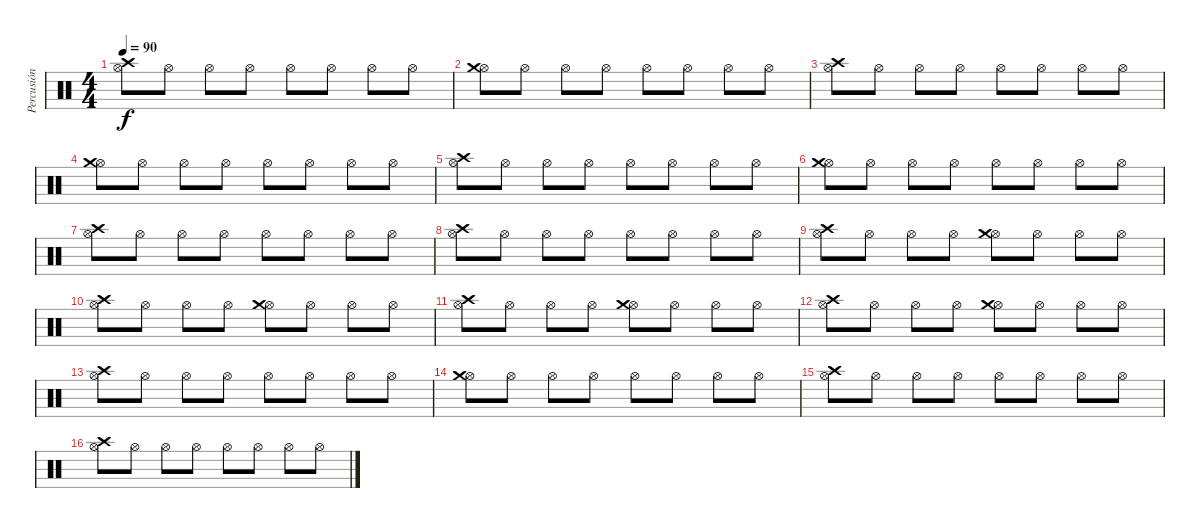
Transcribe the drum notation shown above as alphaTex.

\track ("Percusión" "Percusión") {instrument percussion}
\staff {score}
\articulation defaults
\ts (4 4)
\tempo 90
\clef neutral
\ks c
("Hi-Hat (open)" "Crash high (hit)").8{dy f} "Hi-Hat (open)".8 "Hi-Hat (open)".8 "Hi-Hat (open)".8 "Hi-Hat (open)".8 "Hi-Hat (open)".8 "Hi-Hat (open)".8 "Hi-Hat (open)".8 |
("Hi-Hat (open)" "Crash medium (hit)").8 "Hi-Hat (open)".8 "Hi-Hat (open)".8 "Hi-Hat (open)".8 "Hi-Hat (open)".8 "Hi-Hat (open)".8 "Hi-Hat (open)".8 "Hi-Hat (open)".8 |
("Hi-Hat (open)" "Crash high (hit)").8 "Hi-Hat (open)".8 "Hi-Hat (open)".8 "Hi-Hat (open)".8 "Hi-Hat (open)".8 "Hi-Hat (open)".8 "Hi-Hat (open)".8 "Hi-Hat (open)".8 |
("Hi-Hat (open)" "Crash medium (hit)").8 "Hi-Hat (open)".8 "Hi-Hat (open)".8 "Hi-Hat (open)".8 "Hi-Hat (open)".8 "Hi-Hat (open)".8 "Hi-Hat (open)".8 "Hi-Hat (open)".8 |
("Hi-Hat (open)" "Crash high (hit)").8 "Hi-Hat (open)".8 "Hi-Hat (open)".8 "Hi-Hat (open)".8 "Hi-Hat (open)".8 "Hi-Hat (open)".8 "Hi-Hat (open)".8 "Hi-Hat (open)".8 |
("Hi-Hat (open)" "Crash medium (hit)").8 "Hi-Hat (open)".8 "Hi-Hat (open)".8 "Hi-Hat (open)".8 "Hi-Hat (open)".8 "Hi-Hat (open)".8 "Hi-Hat (open)".8 "Hi-Hat (open)".8 |
("Hi-Hat (open)" "Crash high (hit)").8 "Hi-Hat (open)".8 "Hi-Hat (open)".8 "Hi-Hat (open)".8 "Hi-Hat (open)".8 "Hi-Hat (open)".8 "Hi-Hat (open)".8 "Hi-Hat (open)".8 |
("Hi-Hat (open)" "Crash high (hit)").8 "Hi-Hat (open)".8 "Hi-Hat (open)".8 "Hi-Hat (open)".8 "Hi-Hat (open)".8 "Hi-Hat (open)".8 "Hi-Hat (open)".8 "Hi-Hat (open)".8 |
("Hi-Hat (open)" "Crash high (hit)").8 "Hi-Hat (open)".8 "Hi-Hat (open)".8 "Hi-Hat (open)".8 ("Hi-Hat (open)" "Crash medium (hit)").8 "Hi-Hat (open)".8 "Hi-Hat (open)".8 "Hi-Hat (open)".8 |
("Hi-Hat (open)" "Crash high (hit)").8 "Hi-Hat (open)".8 "Hi-Hat (open)".8 "Hi-Hat (open)".8 ("Hi-Hat (open)" "Crash medium (hit)").8 "Hi-Hat (open)".8 "Hi-Hat (open)".8 "Hi-Hat (open)".8 |
("Hi-Hat (open)" "Crash high (hit)").8 "Hi-Hat (open)".8 "Hi-Hat (open)".8 "Hi-Hat (open)".8 ("Hi-Hat (open)" "Crash medium (hit)").8 "Hi-Hat (open)".8 "Hi-Hat (open)".8 "Hi-Hat (open)".8 |
("Hi-Hat (open)" "Crash high (hit)").8 "Hi-Hat (open)".8 "Hi-Hat (open)".8 "Hi-Hat (open)".8 ("Hi-Hat (open)" "Crash medium (hit)").8 "Hi-Hat (open)".8 "Hi-Hat (open)".8 "Hi-Hat (open)".8 |
("Hi-Hat (open)" "Crash high (hit)").8 "Hi-Hat (open)".8 "Hi-Hat (open)".8 "Hi-Hat (open)".8 "Hi-Hat (open)".8 "Hi-Hat (open)".8 "Hi-Hat (open)".8 "Hi-Hat (open)".8 |
("Hi-Hat (open)" "Crash medium (hit)").8 "Hi-Hat (open)".8 "Hi-Hat (open)".8 "Hi-Hat (open)".8 "Hi-Hat (open)".8 "Hi-Hat (open)".8 "Hi-Hat (open)".8 "Hi-Hat (open)".8 |
("Hi-Hat (open)" "Crash high (hit)").8 "Hi-Hat (open)".8 "Hi-Hat (open)".8 "Hi-Hat (open)".8 "Hi-Hat (open)".8 "Hi-Hat (open)".8 "Hi-Hat (open)".8 "Hi-Hat (open)".8 |
("Hi-Hat (open)" "Crash high (hit)").8 "Hi-Hat (open)".8 "Hi-Hat (open)".8 "Hi-Hat (open)".8 "Hi-Hat (open)".8 "Hi-Hat (open)".8 "Hi-Hat (open)".8 "Hi-Hat (open)".8
